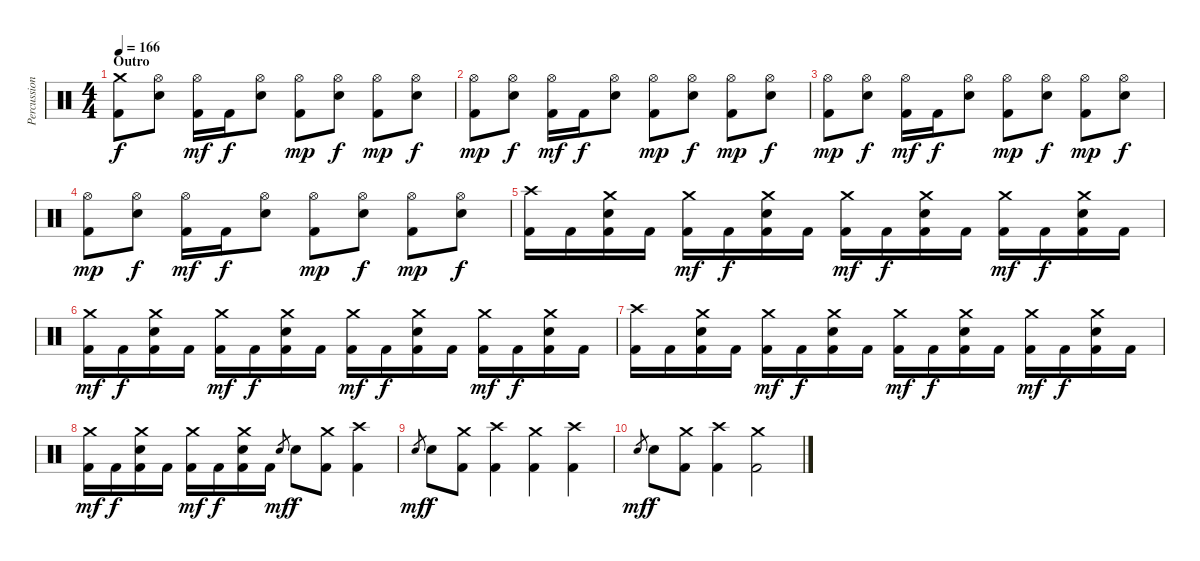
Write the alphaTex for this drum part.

\track ("Percussion" "Percussion") {instrument percussion}
\staff {score}
\articulation defaults
\ts (4 4)
\section ("" "Outro")
\tempo 166
\clef neutral
\ks c
("Crash medium (hit)" "Kick (hit) 2").8{dy f} ("Hi-Hat (open)" "Electric Snare (hit)").8 ("Hi-Hat (open)" "Kick (hit) 2").16{dy mf} "Kick (hit) 2".16{dy f} ("Hi-Hat (open)" "Electric Snare (hit)").8 ("Hi-Hat (open)" "Kick (hit) 2").8{dy mp} ("Hi-Hat (open)" "Electric Snare (hit)").8{dy f} ("Hi-Hat (open)" "Kick (hit) 2").8{dy mp} ("Hi-Hat (open)" "Electric Snare (hit)").8{dy f} |
("Hi-Hat (open)" "Kick (hit) 2").8{dy mp} ("Hi-Hat (open)" "Electric Snare (hit)").8{dy f} ("Hi-Hat (open)" "Kick (hit) 2").16{dy mf} "Kick (hit) 2".16{dy f} ("Hi-Hat (open)" "Electric Snare (hit)").8 ("Hi-Hat (open)" "Kick (hit) 2").8{dy mp} ("Hi-Hat (open)" "Electric Snare (hit)").8{dy f} ("Hi-Hat (open)" "Kick (hit) 2").8{dy mp} ("Hi-Hat (open)" "Electric Snare (hit)").8{dy f} |
("Hi-Hat (open)" "Kick (hit) 2").8{dy mp} ("Hi-Hat (open)" "Electric Snare (hit)").8{dy f} ("Hi-Hat (open)" "Kick (hit) 2").16{dy mf} "Kick (hit) 2".16{dy f} ("Hi-Hat (open)" "Electric Snare (hit)").8 ("Hi-Hat (open)" "Kick (hit) 2").8{dy mp} ("Hi-Hat (open)" "Electric Snare (hit)").8{dy f} ("Hi-Hat (open)" "Kick (hit) 2").8{dy mp} ("Hi-Hat (open)" "Electric Snare (hit)").8{dy f} |
("Hi-Hat (open)" "Kick (hit) 2").8{dy mp} ("Hi-Hat (open)" "Electric Snare (hit)").8{dy f} ("Hi-Hat (open)" "Kick (hit) 2").16{dy mf} "Kick (hit) 2".16{dy f} ("Hi-Hat (open)" "Electric Snare (hit)").8 ("Hi-Hat (open)" "Kick (hit) 2").8{dy mp} ("Hi-Hat (open)" "Electric Snare (hit)").8{dy f} ("Hi-Hat (open)" "Kick (hit) 2").8{dy mp} ("Hi-Hat (open)" "Electric Snare (hit)").8{dy f} |
("Crash high (hit)" "Kick (hit) 2").16 "Kick (hit) 2".16 ("Crash medium (hit)" "Electric Snare (hit)" "Kick (hit) 2").16 "Kick (hit) 2".16 ("Crash medium (hit)" "Kick (hit) 2").16{dy mf} "Kick (hit) 2".16{dy f} ("Crash medium (hit)" "Electric Snare (hit)" "Kick (hit) 2").16 "Kick (hit) 2".16 ("Crash medium (hit)" "Kick (hit) 2").16{dy mf} "Kick (hit) 2".16{dy f} ("Crash medium (hit)" "Electric Snare (hit)" "Kick (hit) 2").16 "Kick (hit) 2".16 ("Crash medium (hit)" "Kick (hit) 2").16{dy mf} "Kick (hit) 2".16{dy f} ("Crash medium (hit)" "Electric Snare (hit)" "Kick (hit) 2").16 "Kick (hit) 2".16 |
("Crash medium (hit)" "Kick (hit) 2").16{dy mf} "Kick (hit) 2".16{dy f} ("Crash medium (hit)" "Electric Snare (hit)" "Kick (hit) 2").16 "Kick (hit) 2".16 ("Crash medium (hit)" "Kick (hit) 2").16{dy mf} "Kick (hit) 2".16{dy f} ("Crash medium (hit)" "Electric Snare (hit)" "Kick (hit) 2").16 "Kick (hit) 2".16 ("Crash medium (hit)" "Kick (hit) 2").16{dy mf} "Kick (hit) 2".16{dy f} ("Crash medium (hit)" "Electric Snare (hit)" "Kick (hit) 2").16 "Kick (hit) 2".16 ("Crash medium (hit)" "Kick (hit) 2").16{dy mf} "Kick (hit) 2".16{dy f} ("Crash medium (hit)" "Electric Snare (hit)" "Kick (hit) 2").16 "Kick (hit) 2".16 |
("Crash high (hit)" "Kick (hit) 2").16 "Kick (hit) 2".16 ("Crash medium (hit)" "Electric Snare (hit)" "Kick (hit) 2").16 "Kick (hit) 2".16 ("Crash medium (hit)" "Kick (hit) 2").16{dy mf} "Kick (hit) 2".16{dy f} ("Crash medium (hit)" "Electric Snare (hit)" "Kick (hit) 2").16 "Kick (hit) 2".16 ("Crash medium (hit)" "Kick (hit) 2").16{dy mf} "Kick (hit) 2".16{dy f} ("Crash medium (hit)" "Electric Snare (hit)" "Kick (hit) 2").16 "Kick (hit) 2".16 ("Crash medium (hit)" "Kick (hit) 2").16{dy mf} "Kick (hit) 2".16{dy f} ("Crash medium (hit)" "Electric Snare (hit)" "Kick (hit) 2").16 "Kick (hit) 2".16 |
("Crash medium (hit)" "Kick (hit) 2").16{dy mf} "Kick (hit) 2".16{dy f} ("Crash medium (hit)" "Electric Snare (hit)" "Kick (hit) 2").16 "Kick (hit) 2".16 ("Crash medium (hit)" "Kick (hit) 2").16{dy mf} "Kick (hit) 2".16{dy f} ("Crash medium (hit)" "Electric Snare (hit)" "Kick (hit) 2").16 "Kick (hit) 2".16 "Electric Snare (hit)".8{gr dy mf} "Electric Snare (hit)".8{dy f} ("Crash medium (hit)" "Kick (hit) 2").8 ("Crash high (hit)" "Kick (hit) 2").4 |
"Electric Snare (hit)".8{gr dy mf} "Electric Snare (hit)".8{dy f} ("Crash medium (hit)" "Kick (hit) 2").8 ("Crash high (hit)" "Kick (hit) 2").4 ("Crash medium (hit)" "Kick (hit) 2").4 ("Crash high (hit)" "Kick (hit) 2").4 |
"Electric Snare (hit)".8{gr dy mf} "Electric Snare (hit)".8{dy f} ("Crash medium (hit)" "Kick (hit) 2").8 ("Crash high (hit)" "Kick (hit) 2").4 ("Crash medium (hit)" "Kick (hit) 2").2
